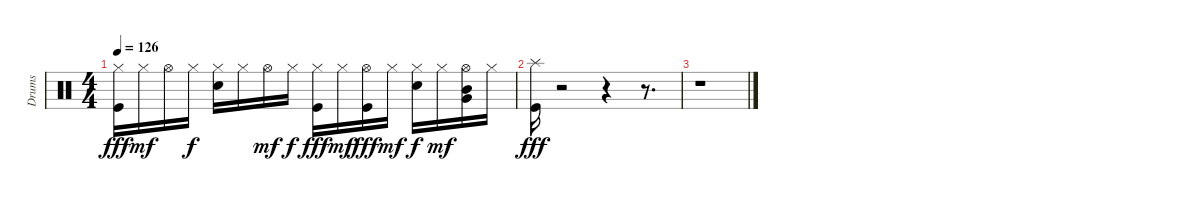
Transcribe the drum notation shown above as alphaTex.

\track ("Drums" "Drums") {instrument percussion}
\staff {score}
\articulation defaults
\ts (4 4)
\tempo 126
\clef neutral
\ks c
("Kick (hit)" "Hi-Hat (closed)").16{dy fff} "Hi-Hat (closed)".16{dy mf} "Hi-Hat (open)".16 "Hi-Hat (closed)".16{dy f} ("Electric Snare (hit)" "Hi-Hat (closed)").16 "Hi-Hat (closed)".16 "Hi-Hat (open)".16{dy mf} "Hi-Hat (closed)".16{dy f} ("Kick (hit)" "Hi-Hat (closed)").16{dy fff} "Hi-Hat (closed)".16{dy mf} ("Kick (hit)" "Hi-Hat (open)").16{dy fff} "Hi-Hat (closed)".16{dy mf} ("Electric Snare (hit)" "Hi-Hat (closed)").16{dy f} "Hi-Hat (closed)".16{dy mf} ("Very Low Tom (hit)" "Hi-Hat (open)" "Mid Tom (hit)").16 "Hi-Hat (closed)".16 |
("Kick (hit)" "Splash (hit)").16{dy fff} r.2 r.4 r.8{d} |
r.1
